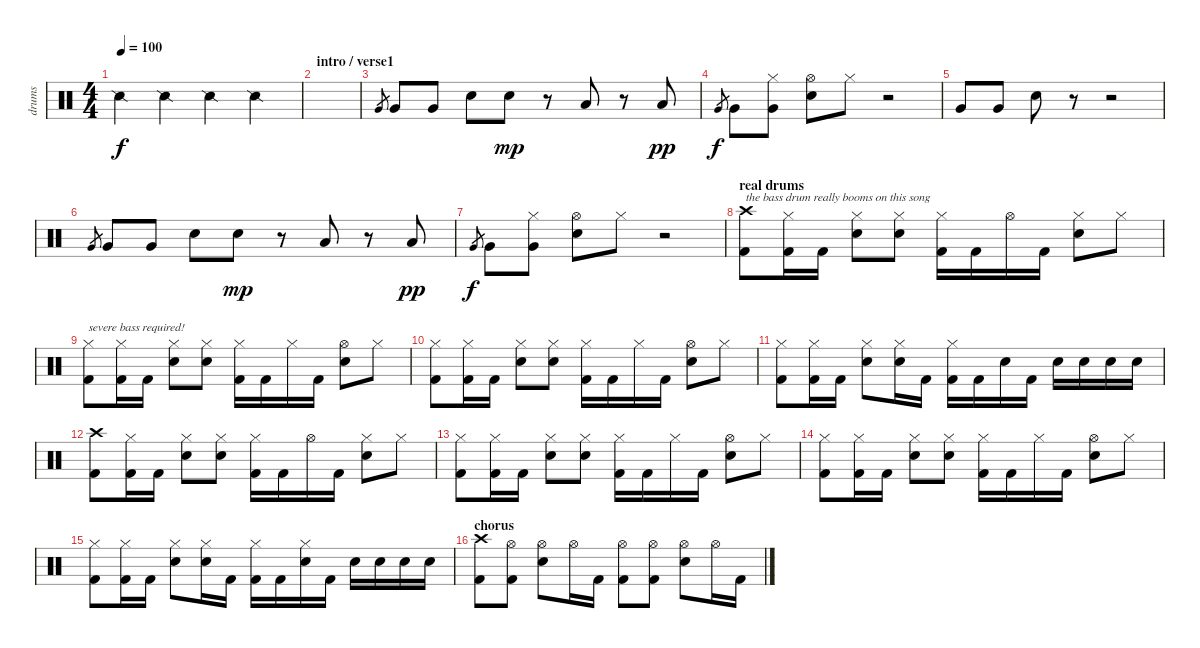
\track ("drums" "drums") {instrument percussion}
\staff {score}
\articulation defaults
\ts (4 4)
\tempo 100
\clef neutral
\ks c "Snare (side stick) 2".4{dy f} "Snare (side stick) 2".4 "Snare (side stick) 2".4 "Snare (side stick) 2".4
|
\section ("" "intro / verse1")
|
"Very Low Tom (hit)".8{gr} "Very Low Tom (hit)".8 "Very Low Tom (hit)".8 "Electric Snare (hit)".8 "Electric Snare (hit)".8{dy mp} r.8 "Low Floor Tom (hit)".8 r.8 "Low Floor Tom (hit)".8{dy pp} |
"Very Low Tom (hit)".8{gr dy f} "Very Low Tom (hit)".8 ("Hi-Hat (closed)" "Very Low Tom (hit)").8 ("Hi-Hat (open)" "Electric Snare (hit)").8 "Hi-Hat (closed)".8 r.2 |
"Very Low Tom (hit)".8 "Very Low Tom (hit)".8 "Electric Snare (hit)".8 r.8 r.2 |
"Very Low Tom (hit)".8{gr} "Very Low Tom (hit)".8 "Very Low Tom (hit)".8 "Electric Snare (hit)".8 "Electric Snare (hit)".8{dy mp} r.8 "Low Floor Tom (hit)".8 r.8 "Low Floor Tom (hit)".8{dy pp} |
"Very Low Tom (hit)".8{gr dy f} "Very Low Tom (hit)".8 ("Hi-Hat (closed)" "Very Low Tom (hit)").8 ("Hi-Hat (open)" "Electric Snare (hit)").8 "Hi-Hat (closed)".8 r.2 |
\section ("" "real drums")
("Crash high (hit)" "Kick (hit) 2").8{txt "the bass drum really booms on this song"} ("Hi-Hat (closed)" "Kick (hit) 2").16 "Kick (hit) 2".16 ("Hi-Hat (closed)" "Electric Snare (hit)").8 ("Hi-Hat (closed)" "Electric Snare (hit)").8 ("Hi-Hat (closed)" "Kick (hit) 2").16 "Kick (hit) 2".16 "Hi-Hat (open)".16 "Kick (hit) 2".16 ("Hi-Hat (closed)" "Electric Snare (hit)").8 "Hi-Hat (closed)".8 |
("Hi-Hat (closed)" "Kick (hit) 2").8{txt "severe bass required!"} ("Hi-Hat (closed)" "Kick (hit) 2").16 "Kick (hit) 2".16 ("Hi-Hat (closed)" "Electric Snare (hit)").8 ("Hi-Hat (closed)" "Electric Snare (hit)").8 ("Hi-Hat (closed)" "Kick (hit) 2").16 "Kick (hit) 2".16 "Hi-Hat (closed)".16 "Kick (hit) 2".16 ("Hi-Hat (open)" "Electric Snare (hit)").8 "Hi-Hat (closed)".8 |
("Hi-Hat (closed)" "Kick (hit) 2").8 ("Hi-Hat (closed)" "Kick (hit) 2").16 "Kick (hit) 2".16 ("Hi-Hat (closed)" "Electric Snare (hit)").8 ("Hi-Hat (closed)" "Electric Snare (hit)").8 ("Hi-Hat (closed)" "Kick (hit) 2").16 "Kick (hit) 2".16 "Hi-Hat (closed)".16 "Kick (hit) 2".16 ("Hi-Hat (open)" "Electric Snare (hit)").8 "Hi-Hat (closed)".8 |
("Hi-Hat (closed)" "Kick (hit) 2").8 ("Hi-Hat (closed)" "Kick (hit) 2").16 "Kick (hit) 2".16 ("Hi-Hat (closed)" "Electric Snare (hit)").8 ("Hi-Hat (closed)" "Electric Snare (hit)").16 "Kick (hit) 2".16 ("Hi-Hat (closed)" "Kick (hit) 2").16 "Kick (hit) 2".16 "Electric Snare (hit)".16 "Kick (hit) 2".16 "Electric Snare (hit)".16 "Electric Snare (hit)".16 "Electric Snare (hit)".16 "Electric Snare (hit)".16 |
("Crash high (hit)" "Kick (hit) 2").8 ("Hi-Hat (closed)" "Kick (hit) 2").16 "Kick (hit) 2".16 ("Hi-Hat (closed)" "Electric Snare (hit)").8 ("Hi-Hat (closed)" "Electric Snare (hit)").8 ("Hi-Hat (closed)" "Kick (hit) 2").16 "Kick (hit) 2".16 "Hi-Hat (open)".16 "Kick (hit) 2".16 ("Hi-Hat (closed)" "Electric Snare (hit)").8 "Hi-Hat (closed)".8 |
("Hi-Hat (closed)" "Kick (hit) 2").8 ("Hi-Hat (closed)" "Kick (hit) 2").16 "Kick (hit) 2".16 ("Hi-Hat (closed)" "Electric Snare (hit)").8 ("Hi-Hat (closed)" "Electric Snare (hit)").8 ("Hi-Hat (closed)" "Kick (hit) 2").16 "Kick (hit) 2".16 "Hi-Hat (closed)".16 "Kick (hit) 2".16 ("Hi-Hat (open)" "Electric Snare (hit)").8 "Hi-Hat (closed)".8 |
("Hi-Hat (closed)" "Kick (hit) 2").8 ("Hi-Hat (closed)" "Kick (hit) 2").16 "Kick (hit) 2".16 ("Hi-Hat (closed)" "Electric Snare (hit)").8 ("Hi-Hat (closed)" "Electric Snare (hit)").8 ("Hi-Hat (closed)" "Kick (hit) 2").16 "Kick (hit) 2".16 "Hi-Hat (closed)".16 "Kick (hit) 2".16 ("Hi-Hat (open)" "Electric Snare (hit)").8 "Hi-Hat (closed)".8 |
("Hi-Hat (closed)" "Kick (hit) 2").8 ("Hi-Hat (closed)" "Kick (hit) 2").16 "Kick (hit) 2".16 ("Hi-Hat (closed)" "Electric Snare (hit)").8 ("Hi-Hat (closed)" "Electric Snare (hit)").16 "Kick (hit) 2".16 ("Hi-Hat (closed)" "Kick (hit) 2").16 "Kick (hit) 2".16 ("Hi-Hat (closed)" "Electric Snare (hit)").16 "Kick (hit) 2".16 "Electric Snare (hit)".16 "Electric Snare (hit)".16 "Electric Snare (hit)".16 "Electric Snare (hit)".16 |
\section ("" "chorus")
("Crash high (hit)" "Kick (hit) 2").8 ("Hi-Hat (open)" "Kick (hit) 2").8 ("Hi-Hat (open)" "Electric Snare (hit)").8 "Hi-Hat (open)".16 "Kick (hit) 2".16 ("Hi-Hat (open)" "Kick (hit) 2").8 ("Hi-Hat (open)" "Kick (hit) 2").8 ("Hi-Hat (open)" "Electric Snare (hit)").8 "Hi-Hat (open)".16 "Kick (hit) 2".16
